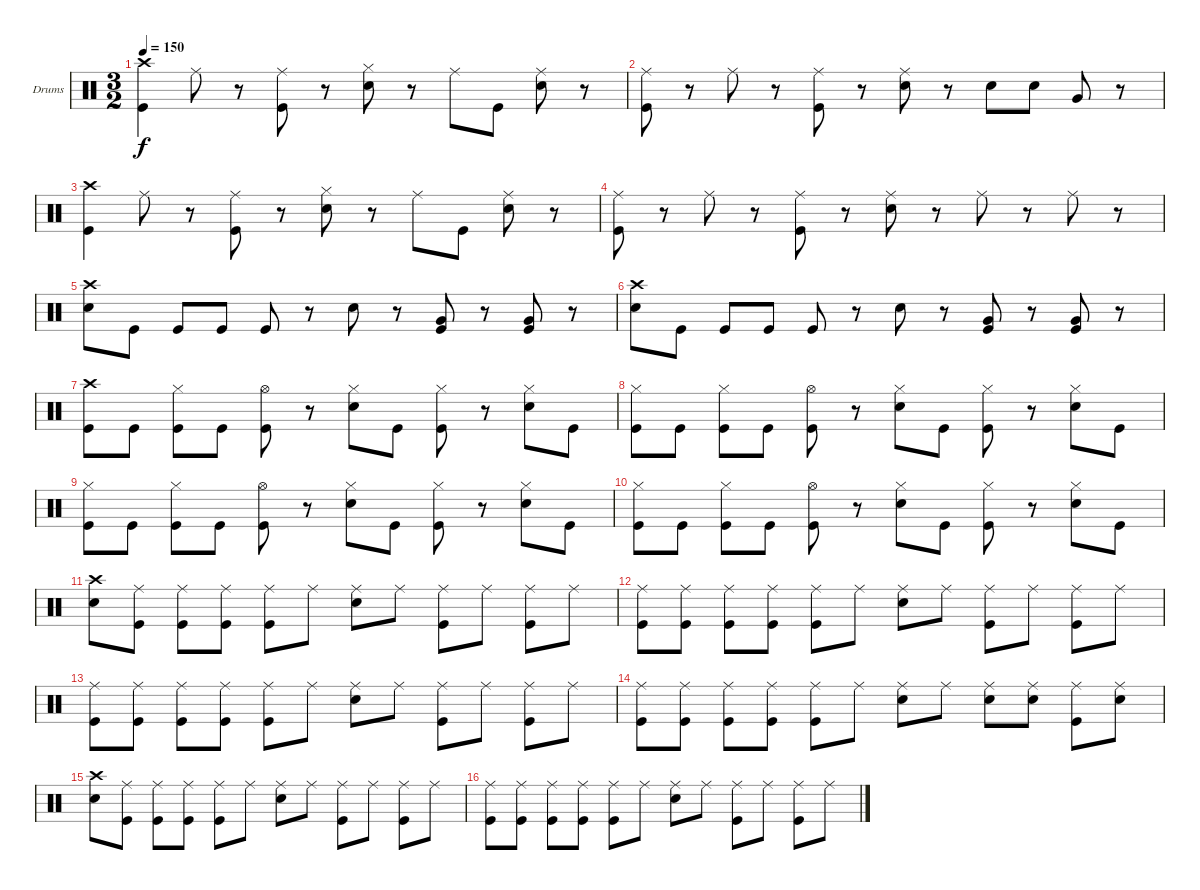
\bracketExtendMode groupsimilarinstruments
\firstSystemTrackNameOrientation horizontal
\otherSystemsTrackNameOrientation horizontal
\track ("Барабаны" "Drums") {instrument percussion}
\staff {score}
\articulation defaults
\ts (3 2)
\tempo 150
\clef neutral
\ks c
("Crash high (hit)" "Kick (hit)").4{dy f} "Ride (middle)".8 r.8 ("Kick (hit)" "Ride (middle)").8 r.8 ("Snare (hit) 2" "Hi-Hat (closed)").8 r.8 "Ride (middle)".8 "Kick (hit)".8 ("Snare (hit) 2" "Ride (middle)").8 r.8 |
("Kick (hit)" "Ride (middle)").8 r.8 "Ride (middle)".8 r.8 ("Kick (hit)" "Ride (middle)").8 r.8 ("Snare (hit) 2" "Ride (middle)").8 r.8 "Snare (hit) 2".8 "Snare (hit) 2".8 "Very Low Tom (hit)".8 r.8 |
("Kick (hit)" "Crash high (hit)").4 "Ride (middle)".8 r.8 ("Kick (hit)" "Ride (middle)").8 r.8 ("Snare (hit) 2" "Hi-Hat (closed)").8 r.8 "Ride (middle)".8 "Kick (hit)".8 ("Ride (middle)" "Snare (hit) 2").8 r.8 |
("Ride (middle)" "Kick (hit)").8 r.8 "Ride (middle)".8 r.8 ("Kick (hit)" "Ride (middle)").8 r.8 ("Snare (hit) 2" "Ride (middle)").8 r.8 "Ride (middle)".8 r.8 "Ride (middle)".8 r.8 |
("Snare (hit) 2" "Crash high (hit)").8 "Kick (hit)".8 "Kick (hit)".8 "Kick (hit)".8 "Kick (hit)".8 r.8 "Snare (hit) 2".8 r.8 ("Very Low Tom (hit)" "Kick (hit)").8 r.8 ("Kick (hit)" "Very Low Tom (hit)").8 r.8 |
("Snare (hit) 2" "Crash high (hit)").8 "Kick (hit)".8 "Kick (hit)".8 "Kick (hit)".8 "Kick (hit)".8 r.8 "Snare (hit) 2".8 r.8 ("Kick (hit)" "Very Low Tom (hit)").8 r.8 ("Very Low Tom (hit)" "Kick (hit)").8 r.8 |
("Kick (hit)" "Crash high (hit)").8 "Kick (hit)".8 ("Kick (hit)" "Hi-Hat (closed)").8 "Kick (hit)".8 ("Kick (hit)" "Hi-Hat (open)").8 r.8 ("Hi-Hat (closed)" "Snare (hit) 2").8 "Kick (hit)".8 ("Hi-Hat (closed)" "Kick (hit)").8 r.8 ("Snare (hit) 2" "Hi-Hat (closed)").8 "Kick (hit)".8 |
("Kick (hit)" "Hi-Hat (closed)").8 "Kick (hit)".8 ("Kick (hit)" "Hi-Hat (closed)").8 "Kick (hit)".8 ("Hi-Hat (open)" "Kick (hit)").8 r.8 ("Hi-Hat (closed)" "Snare (hit) 2").8 "Kick (hit)".8 ("Hi-Hat (closed)" "Kick (hit)").8 r.8 ("Hi-Hat (closed)" "Snare (hit) 2").8 "Kick (hit)".8 |
("Kick (hit)" "Hi-Hat (closed)").8 "Kick (hit)".8 ("Hi-Hat (closed)" "Kick (hit)").8 "Kick (hit)".8 ("Kick (hit)" "Hi-Hat (open)").8 r.8 ("Snare (hit) 2" "Hi-Hat (closed)").8 "Kick (hit)".8 ("Hi-Hat (closed)" "Kick (hit)").8 r.8 ("Hi-Hat (closed)" "Snare (hit) 2").8 "Kick (hit)".8 |
("Kick (hit)" "Hi-Hat (closed)").8 "Kick (hit)".8 ("Kick (hit)" "Hi-Hat (closed)").8 "Kick (hit)".8 ("Kick (hit)" "Hi-Hat (open)").8 r.8 ("Hi-Hat (closed)" "Snare (hit) 2").8 "Kick (hit)".8 ("Hi-Hat (closed)" "Kick (hit)").8 r.8 ("Hi-Hat (closed)" "Snare (hit) 2").8 "Kick (hit)".8 |
("Crash high (hit)" "Snare (hit) 2").8 ("Kick (hit)" "Ride (middle)").8 ("Kick (hit)" "Ride (middle)").8 ("Ride (middle)" "Kick (hit)").8 ("Kick (hit)" "Ride (middle)").8 "Ride (middle)".8 ("Ride (middle)" "Snare (hit) 2").8 "Ride (middle)".8 ("Ride (middle)" "Kick (hit)").8 "Ride (middle)".8 ("Kick (hit)" "Ride (middle)").8 "Ride (middle)".8 |
("Kick (hit)" "Ride (middle)").8 ("Ride (middle)" "Kick (hit)").8 ("Ride (middle)" "Kick (hit)").8 ("Kick (hit)" "Ride (middle)").8 ("Kick (hit)" "Ride (middle)").8 "Ride (middle)".8 ("Ride (middle)" "Snare (hit) 2").8 "Ride (middle)".8 ("Ride (middle)" "Kick (hit)").8 "Ride (middle)".8 ("Kick (hit)" "Ride (middle)").8 "Ride (middle)".8 |
("Ride (middle)" "Kick (hit)").8 ("Kick (hit)" "Ride (middle)").8 ("Kick (hit)" "Ride (middle)").8 ("Ride (middle)" "Kick (hit)").8 ("Kick (hit)" "Ride (middle)").8 "Ride (middle)".8 ("Snare (hit) 2" "Ride (middle)").8 "Ride (middle)".8 ("Ride (middle)" "Kick (hit)").8 "Ride (middle)".8 ("Ride (middle)" "Kick (hit)").8 "Ride (middle)".8 |
("Kick (hit)" "Ride (middle)").8 ("Kick (hit)" "Ride (middle)").8 ("Ride (middle)" "Kick (hit)").8 ("Ride (middle)" "Kick (hit)").8 ("Kick (hit)" "Ride (middle)").8 "Ride (middle)".8 ("Snare (hit) 2" "Ride (middle)").8 "Ride (middle)".8 ("Ride (middle)" "Snare (hit) 2").8 ("Ride (middle)" "Snare (hit) 2").8 ("Ride (middle)" "Kick (hit)").8 ("Ride (middle)" "Snare (hit) 2").8 |
("Crash high (hit)" "Snare (hit) 2").8 ("Ride (middle)" "Kick (hit)").8 ("Kick (hit)" "Ride (middle)").8 ("Ride (middle)" "Kick (hit)").8 ("Ride (middle)" "Kick (hit)").8 "Ride (middle)".8 ("Ride (middle)" "Snare (hit) 2").8 "Ride (middle)".8 ("Kick (hit)" "Ride (middle)").8 "Ride (middle)".8 ("Kick (hit)" "Ride (middle)").8 "Ride (middle)".8 |
("Ride (middle)" "Kick (hit)").8 ("Kick (hit)" "Ride (middle)").8 ("Ride (middle)" "Kick (hit)").8 ("Kick (hit)" "Ride (middle)").8 ("Ride (middle)" "Kick (hit)").8 "Ride (middle)".8 ("Snare (hit) 2" "Ride (middle)").8 "Ride (middle)".8 ("Ride (middle)" "Kick (hit)").8 "Ride (middle)".8 ("Kick (hit)" "Ride (middle)").8 "Ride (middle)".8
